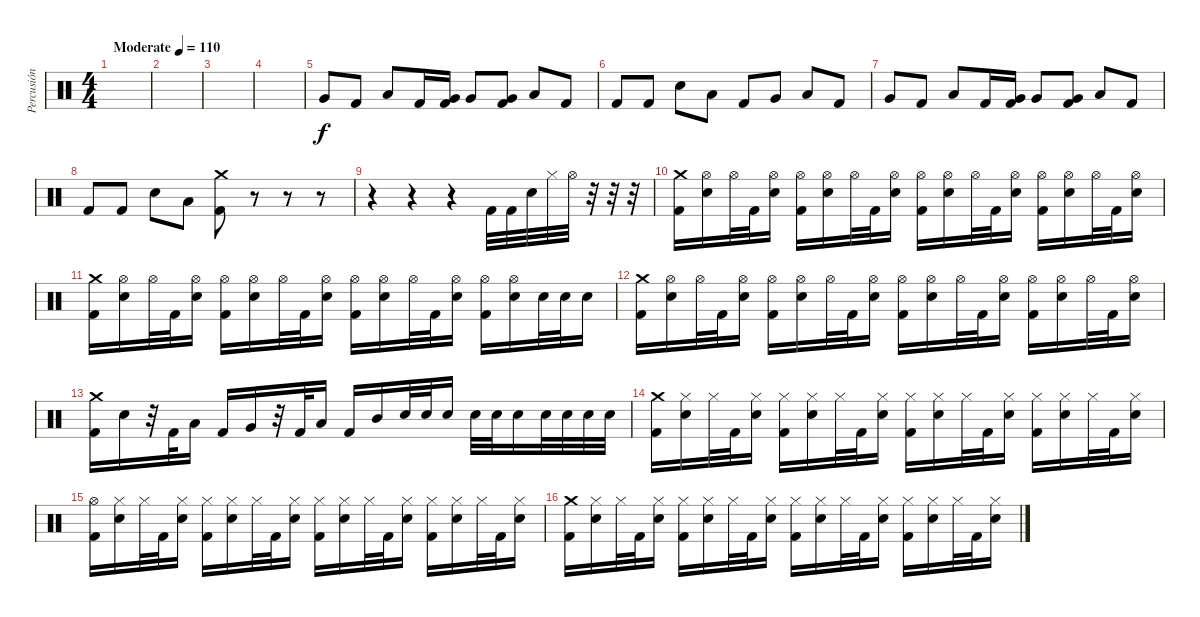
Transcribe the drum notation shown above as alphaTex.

\track ("Percusión" "Percusión") {instrument percussion}
\staff {score}
\articulation defaults
\ts (4 4)
\section ("" "")
\tempo (110 "Moderate")
\clef neutral
\ks c
|
|
|
|
"Very Low Tom (hit)".8 "Kick (hit) 2".8 "Low Tom (hit)".8 "Kick (hit) 2".16 ("Kick (hit) 2" "Very Low Tom (hit)").16 "Very Low Tom (hit)".8 ("Kick (hit) 2" "Very Low Tom (hit)").8 "Low Tom (hit)".8 "Kick (hit) 2".8 |
"Kick (hit) 2".8 "Kick (hit) 2".8 "Electric Snare (hit)".8 "Low Tom (hit)".8 "Kick (hit) 2".8 "Very Low Tom (hit)".8 "Low Tom (hit)".8 "Kick (hit) 2".8 |
"Very Low Tom (hit)".8 "Kick (hit) 2".8 "Low Tom (hit)".8 "Kick (hit) 2".16 ("Kick (hit) 2" "Very Low Tom (hit)").16 "Very Low Tom (hit)".8 ("Kick (hit) 2" "Very Low Tom (hit)").8 "Low Tom (hit)".8 "Kick (hit) 2".8 |
"Kick (hit) 2".8 "Kick (hit) 2".8 "Electric Snare (hit)".8 "Low Tom (hit)".8 ("Crash medium (hit)" "Kick (hit) 2").8 r.8 r.8 r.8 |
r.4 r.4 r.4 "Kick (hit) 2".32 "Kick (hit) 2".32 "Electric Snare (hit)".32 "Hi-Hat (closed)".32 "Hi-Hat (open)".32 r.32 r.32 r.32 |
("Crash medium (hit)" "Kick (hit) 2").16 ("Hi-Hat (open)" "Electric Snare (hit)").16 "Hi-Hat (open)".32 "Kick (hit) 2".32 ("Hi-Hat (open)" "Electric Snare (hit)").16 ("Hi-Hat (open)" "Kick (hit) 2").16 ("Hi-Hat (open)" "Electric Snare (hit)").16 "Hi-Hat (open)".32 "Kick (hit) 2".32 ("Hi-Hat (open)" "Electric Snare (hit)").16 ("Hi-Hat (open)" "Kick (hit) 2").16 ("Hi-Hat (open)" "Electric Snare (hit)").16 "Hi-Hat (open)".32 "Kick (hit) 2".32 ("Hi-Hat (open)" "Electric Snare (hit)").16 ("Hi-Hat (open)" "Kick (hit) 2").16 ("Hi-Hat (open)" "Electric Snare (hit)").16 "Hi-Hat (open)".32 "Kick (hit) 2".32 ("Hi-Hat (open)" "Electric Snare (hit)").16 |
("Crash medium (hit)" "Kick (hit) 2").16 ("Hi-Hat (open)" "Electric Snare (hit)").16 "Hi-Hat (open)".32 "Kick (hit) 2".32 ("Hi-Hat (open)" "Electric Snare (hit)").16 ("Hi-Hat (open)" "Kick (hit) 2").16 ("Hi-Hat (open)" "Electric Snare (hit)").16 "Hi-Hat (open)".32 "Kick (hit) 2".32 ("Hi-Hat (open)" "Electric Snare (hit)").16 ("Hi-Hat (open)" "Kick (hit) 2").16 ("Hi-Hat (open)" "Electric Snare (hit)").16 "Hi-Hat (open)".32 "Kick (hit) 2".32 ("Hi-Hat (open)" "Electric Snare (hit)").16 ("Hi-Hat (open)" "Kick (hit) 2").16 ("Hi-Hat (open)" "Electric Snare (hit)").16 "Electric Snare (hit)".32 "Electric Snare (hit)".32 "Electric Snare (hit)".16 |
("Crash medium (hit)" "Kick (hit) 2").16 ("Hi-Hat (open)" "Electric Snare (hit)").16 "Hi-Hat (open)".32 "Kick (hit) 2".32 ("Hi-Hat (open)" "Electric Snare (hit)").16 ("Hi-Hat (open)" "Kick (hit) 2").16 ("Hi-Hat (open)" "Electric Snare (hit)").16 "Hi-Hat (open)".32 "Kick (hit) 2".32 ("Hi-Hat (open)" "Electric Snare (hit)").16 ("Hi-Hat (open)" "Kick (hit) 2").16 ("Hi-Hat (open)" "Electric Snare (hit)").16 "Hi-Hat (open)".32 "Kick (hit) 2".32 ("Hi-Hat (open)" "Electric Snare (hit)").16 ("Hi-Hat (open)" "Kick (hit) 2").16 ("Hi-Hat (open)" "Electric Snare (hit)").16 "Hi-Hat (open)".32 "Kick (hit) 2".32 ("Hi-Hat (open)" "Electric Snare (hit)").16 |
("Crash medium (hit)" "Kick (hit) 2").16 "Electric Snare (hit)".16 r.32 "Kick (hit) 2".32 "Low Tom (hit)".16 "Kick (hit) 2".16 "Very Low Tom (hit)".16 r.32 "Kick (hit) 2".32 "Low Tom (hit)".16 "Kick (hit) 2".16 "Mid Tom (hit)".16 "Electric Snare (hit)".32 "Electric Snare (hit)".32 "Electric Snare (hit)".16 "Electric Snare (hit)".32 "Electric Snare (hit)".32 "Electric Snare (hit)".16 "Electric Snare (hit)".32 "Electric Snare (hit)".32 "Electric Snare (hit)".32 "Electric Snare (hit)".32 |
("Crash medium (hit)" "Kick (hit) 2").16 ("Hi-Hat (closed)" "Electric Snare (hit)").16 "Hi-Hat (closed)".32 "Kick (hit) 2".32 ("Hi-Hat (closed)" "Electric Snare (hit)").16 ("Hi-Hat (closed)" "Kick (hit) 2").16 ("Hi-Hat (closed)" "Electric Snare (hit)").16 "Hi-Hat (closed)".32 "Kick (hit) 2".32 ("Hi-Hat (closed)" "Electric Snare (hit)").16 ("Hi-Hat (closed)" "Kick (hit) 2").16 ("Hi-Hat (closed)" "Electric Snare (hit)").16 "Hi-Hat (closed)".32 "Kick (hit) 2".32 ("Hi-Hat (closed)" "Electric Snare (hit)").16 ("Hi-Hat (closed)" "Kick (hit) 2").16 ("Hi-Hat (closed)" "Electric Snare (hit)").16 "Hi-Hat (closed)".32 "Kick (hit) 2".32 ("Hi-Hat (closed)" "Electric Snare (hit)").16 |
("Hi-Hat (open)" "Kick (hit) 2").16 ("Hi-Hat (closed)" "Electric Snare (hit)").16 "Hi-Hat (closed)".32 "Kick (hit) 2".32 ("Hi-Hat (closed)" "Electric Snare (hit)").16 ("Hi-Hat (closed)" "Kick (hit) 2").16 ("Hi-Hat (closed)" "Electric Snare (hit)").16 "Hi-Hat (closed)".32 "Kick (hit) 2".32 ("Hi-Hat (closed)" "Electric Snare (hit)").16 ("Hi-Hat (closed)" "Kick (hit) 2").16 ("Hi-Hat (closed)" "Electric Snare (hit)").16 "Hi-Hat (closed)".32 "Kick (hit) 2".32 ("Hi-Hat (closed)" "Electric Snare (hit)").16 ("Hi-Hat (closed)" "Kick (hit) 2").16 ("Hi-Hat (closed)" "Electric Snare (hit)").16 "Hi-Hat (closed)".32 "Kick (hit) 2".32 ("Hi-Hat (closed)" "Electric Snare (hit)").16 |
("Crash medium (hit)" "Kick (hit) 2").16 ("Hi-Hat (closed)" "Electric Snare (hit)").16 "Hi-Hat (closed)".32 "Kick (hit) 2".32 ("Hi-Hat (closed)" "Electric Snare (hit)").16 ("Hi-Hat (closed)" "Kick (hit) 2").16 ("Hi-Hat (closed)" "Electric Snare (hit)").16 "Hi-Hat (closed)".32 "Kick (hit) 2".32 ("Hi-Hat (closed)" "Electric Snare (hit)").16 ("Hi-Hat (closed)" "Kick (hit) 2").16 ("Hi-Hat (closed)" "Electric Snare (hit)").16 "Hi-Hat (closed)".32 "Kick (hit) 2".32 ("Hi-Hat (closed)" "Electric Snare (hit)").16 ("Hi-Hat (closed)" "Kick (hit) 2").16 ("Hi-Hat (closed)" "Electric Snare (hit)").16 "Hi-Hat (closed)".32 "Kick (hit) 2".32 ("Hi-Hat (closed)" "Electric Snare (hit)").16
